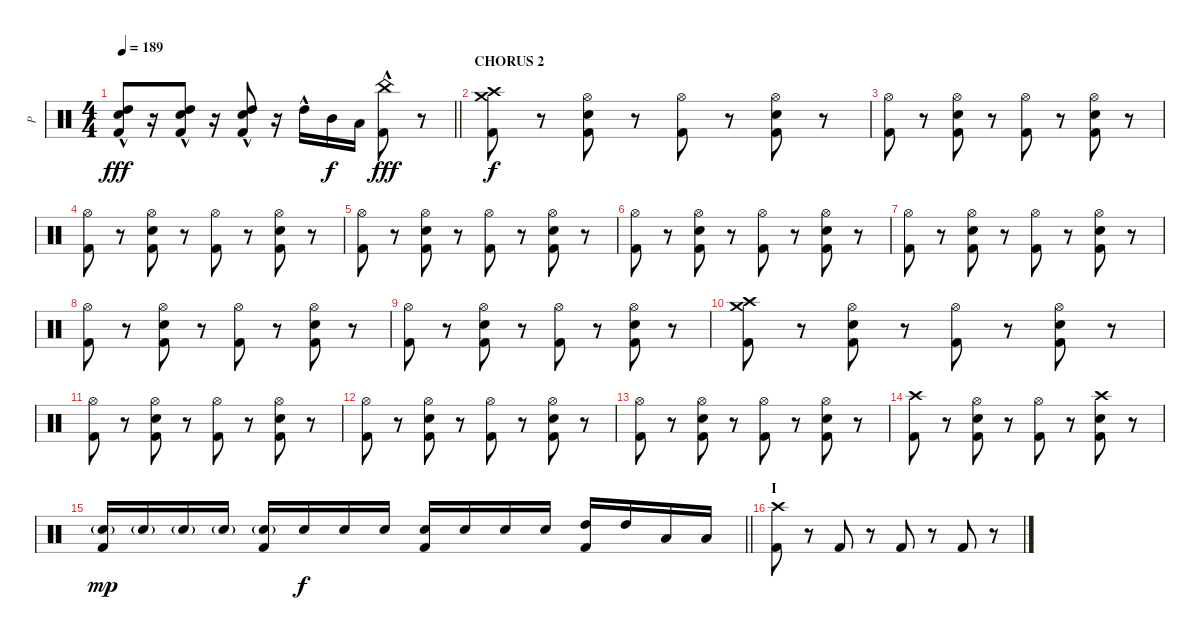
\track ("P" "P") {instrument percussion}
\staff {score}
\articulation defaults
\ts (4 4)
\tempo 189
\clef neutral
\barLineRight lightlight
\ks c
("High Tom (hit)"{hac} "Electric Snare (hit)"{hac} "Kick (hit) 2").8{dy fff} r.16 ("High Tom (hit)"{hac} "Electric Snare (hit)"{hac} "Kick (hit) 2").8 r.16 ("High Tom (hit)"{hac} "Electric Snare (hit)"{hac} "Kick (hit) 2").8 r.16 "High Tom (hit)"{hac}.16 "Mid Tom (hit)".16{dy f} "Low Tom (hit)".16 ("China (hit)"{hac} "Kick (hit) 2").8{dy fff} r.8 |
\section ("" "CHORUS 2")
("Crash medium (hit)" "Crash high (hit)" "Kick (hit) 2").8{dy f} r.8 ("Hi-Hat (open)" "Electric Snare (hit)" "Kick (hit) 2").8 r.8 ("Hi-Hat (open)" "Kick (hit) 2").8 r.8 ("Hi-Hat (open)" "Electric Snare (hit)" "Kick (hit) 2").8 r.8 |
("Hi-Hat (open)" "Kick (hit) 2").8 r.8 ("Hi-Hat (open)" "Electric Snare (hit)" "Kick (hit) 2").8 r.8 ("Hi-Hat (open)" "Kick (hit) 2").8 r.8 ("Hi-Hat (open)" "Electric Snare (hit)" "Kick (hit) 2").8 r.8 |
("Hi-Hat (open)" "Kick (hit) 2").8 r.8 ("Hi-Hat (open)" "Electric Snare (hit)" "Kick (hit) 2").8 r.8 ("Hi-Hat (open)" "Kick (hit) 2").8 r.8 ("Hi-Hat (open)" "Electric Snare (hit)" "Kick (hit) 2").8 r.8 |
("Hi-Hat (open)" "Kick (hit) 2").8 r.8 ("Hi-Hat (open)" "Electric Snare (hit)" "Kick (hit) 2").8 r.8 ("Hi-Hat (open)" "Kick (hit) 2").8 r.8 ("Hi-Hat (open)" "Electric Snare (hit)" "Kick (hit) 2").8 r.8 |
("Hi-Hat (open)" "Kick (hit) 2").8 r.8 ("Hi-Hat (open)" "Electric Snare (hit)" "Kick (hit) 2").8 r.8 ("Hi-Hat (open)" "Kick (hit) 2").8 r.8 ("Hi-Hat (open)" "Electric Snare (hit)" "Kick (hit) 2").8 r.8 |
("Hi-Hat (open)" "Kick (hit) 2").8 r.8 ("Hi-Hat (open)" "Electric Snare (hit)" "Kick (hit) 2").8 r.8 ("Hi-Hat (open)" "Kick (hit) 2").8 r.8 ("Hi-Hat (open)" "Electric Snare (hit)" "Kick (hit) 2").8 r.8 |
("Hi-Hat (open)" "Kick (hit) 2").8 r.8 ("Hi-Hat (open)" "Electric Snare (hit)" "Kick (hit) 2").8 r.8 ("Hi-Hat (open)" "Kick (hit) 2").8 r.8 ("Hi-Hat (open)" "Electric Snare (hit)" "Kick (hit) 2").8 r.8 |
("Hi-Hat (open)" "Kick (hit) 2").8 r.8 ("Hi-Hat (open)" "Electric Snare (hit)" "Kick (hit) 2").8 r.8 ("Hi-Hat (open)" "Kick (hit) 2").8 r.8 ("Hi-Hat (open)" "Electric Snare (hit)" "Kick (hit) 2").8 r.8 |
("Crash medium (hit)" "Crash high (hit)" "Kick (hit) 2").8 r.8 ("Hi-Hat (open)" "Electric Snare (hit)" "Kick (hit) 2").8 r.8 ("Hi-Hat (open)" "Kick (hit) 2").8 r.8 ("Hi-Hat (open)" "Electric Snare (hit)" "Kick (hit) 2").8 r.8 |
("Hi-Hat (open)" "Kick (hit) 2").8 r.8 ("Hi-Hat (open)" "Electric Snare (hit)" "Kick (hit) 2").8 r.8 ("Hi-Hat (open)" "Kick (hit) 2").8 r.8 ("Hi-Hat (open)" "Electric Snare (hit)" "Kick (hit) 2").8 r.8 |
("Hi-Hat (open)" "Kick (hit) 2").8 r.8 ("Hi-Hat (open)" "Electric Snare (hit)" "Kick (hit) 2").8 r.8 ("Hi-Hat (open)" "Kick (hit) 2").8 r.8 ("Hi-Hat (open)" "Electric Snare (hit)" "Kick (hit) 2").8 r.8 |
("Hi-Hat (open)" "Kick (hit) 2").8 r.8 ("Hi-Hat (open)" "Electric Snare (hit)" "Kick (hit) 2").8 r.8 ("Hi-Hat (open)" "Kick (hit) 2").8 r.8 ("Hi-Hat (open)" "Electric Snare (hit)" "Kick (hit) 2").8 r.8 |
("Crash high (hit)" "Kick (hit) 2").8 r.8 ("Hi-Hat (open)" "Electric Snare (hit)" "Kick (hit) 2").8 r.8 ("Hi-Hat (open)" "Kick (hit) 2").8 r.8 ("Crash high (hit)" "Electric Snare (hit)" "Kick (hit) 2").8 r.8 |
\barLineRight lightlight
("Electric Snare (hit)"{g} "Kick (hit) 2").16{dy mp} "Electric Snare (hit)"{g}.16 "Electric Snare (hit)"{g}.16 "Electric Snare (hit)"{g}.16 ("Electric Snare (hit)"{g} "Kick (hit) 2").16 "Electric Snare (hit)".16{dy f} "Electric Snare (hit)".16 "Electric Snare (hit)".16 ("Electric Snare (hit)" "Kick (hit) 2").16 "Electric Snare (hit)".16 "Electric Snare (hit)".16 "Electric Snare (hit)".16 ("High Tom (hit)" "Kick (hit) 2").16 "High Tom (hit)".16 "Low Tom (hit)".16 "Low Tom (hit)".16 |
\section ("" "I")
("Crash high (hit)" "Kick (hit) 2").8 r.8 "Kick (hit) 2".8 r.8 "Kick (hit) 2".8 r.8 "Kick (hit) 2".8 r.8
